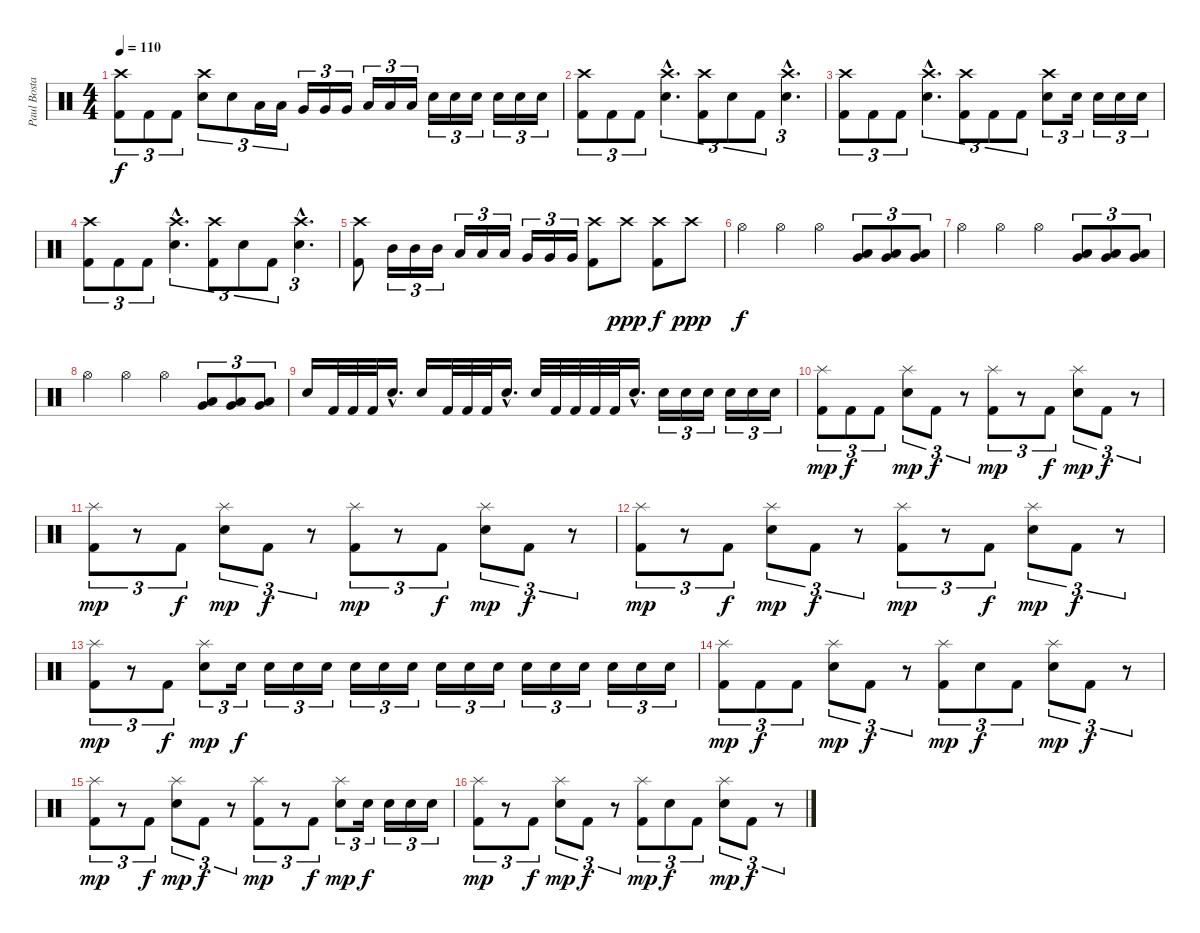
\track ("Paul Bostaph" "Paul Bosta") {instrument percussion}
\staff {score}
\articulation defaults
\ts (4 4)
\tempo 110
\clef neutral
\ks c
("Crash high (hit)" "Kick (hit) 2").8{tu (3 2) dy f} "Kick (hit) 2".8{tu (3 2)} "Kick (hit) 2".8{tu (3 2)} ("Crash high (hit)" "Electric Snare (hit)").8{tu (3 2)} "Electric Snare (hit)".8{tu (3 2)} "Low Tom (hit)".16{tu (3 2)} "Low Tom (hit)".16{tu (3 2)} "Very Low Tom (hit)".16{tu (3 2)} "Very Low Tom (hit)".16{tu (3 2)} "Very Low Tom (hit)".16{tu (3 2)} "Low Floor Tom (hit)".16{tu (3 2)} "Low Floor Tom (hit)".16{tu (3 2)} "Low Floor Tom (hit)".16{tu (3 2)} "Electric Snare (hit)".16{tu (3 2)} "Electric Snare (hit)".16{tu (3 2)} "Electric Snare (hit)".16{tu (3 2)} "Electric Snare (hit)".16{tu (3 2)} "Electric Snare (hit)".16{tu (3 2)} "Electric Snare (hit)".16{tu (3 2)} |
("Crash high (hit)" "Kick (hit) 2").8{tu (3 2)} "Kick (hit) 2".8{tu (3 2)} "Kick (hit) 2".8{tu (3 2)} ("Crash high (hit)"{hac} "Electric Snare (hit)"{hac}).4{d tu (3 2)} ("Crash high (hit)" "Kick (hit) 2").8{tu (3 2)} "Electric Snare (hit)".8{tu (3 2)} "Kick (hit) 2".8{tu (3 2)} ("Crash high (hit)"{hac} "Electric Snare (hit)"{hac}).4{d tu (3 2)} |
("Crash high (hit)" "Kick (hit) 2").8{tu (3 2)} "Kick (hit) 2".8{tu (3 2)} "Kick (hit) 2".8{tu (3 2)} ("Crash high (hit)"{hac} "Electric Snare (hit)"{hac}).4{d tu (3 2)} ("Crash high (hit)" "Kick (hit) 2").8{tu (3 2)} "Kick (hit) 2".8{tu (3 2)} "Kick (hit) 2".8{tu (3 2)} ("Crash high (hit)" "Electric Snare (hit)").8{tu (3 2)} "Electric Snare (hit)".16{tu (3 2)} "Electric Snare (hit)".16{tu (3 2)} "Electric Snare (hit)".16{tu (3 2)} "Electric Snare (hit)".16{tu (3 2)} |
("Crash high (hit)" "Kick (hit) 2").8{tu (3 2)} "Kick (hit) 2".8{tu (3 2)} "Kick (hit) 2".8{tu (3 2)} ("Crash high (hit)"{hac} "Electric Snare (hit)"{hac}).4{d tu (3 2)} ("Crash high (hit)" "Kick (hit) 2").8{tu (3 2)} "Electric Snare (hit)".8{tu (3 2)} "Kick (hit) 2".8{tu (3 2)} ("Crash high (hit)"{hac} "Electric Snare (hit)"{hac}).4{d tu (3 2)} |
("Crash high (hit)" "Kick (hit) 2").8 "Mid Tom (hit)".16{tu (3 2)} "Mid Tom (hit)".16{tu (3 2)} "Mid Tom (hit)".16{tu (3 2)} "Low Tom (hit)".16{tu (3 2)} "Low Tom (hit)".16{tu (3 2)} "Low Tom (hit)".16{tu (3 2)} "Very Low Tom (hit)".16{tu (3 2)} "Very Low Tom (hit)".16{tu (3 2)} "Very Low Tom (hit)".16{tu (3 2)} ("Crash high (hit)" "Kick (hit) 2").8 "Crash high (hit)".8{dy ppp} ("Crash high (hit)" "Kick (hit) 2").8{dy f} "Crash high (hit)".8{dy ppp} |
"Hi-Hat (open)".4{dy f} "Hi-Hat (open)".4 "Hi-Hat (open)".4 ("Low Floor Tom (hit)" "Very Low Tom (hit)").8{tu (3 2)} ("Low Floor Tom (hit)" "Very Low Tom (hit)").8{tu (3 2)} ("Low Floor Tom (hit)" "Very Low Tom (hit)").8{tu (3 2)} |
"Hi-Hat (open)".4 "Hi-Hat (open)".4 "Hi-Hat (open)".4 ("Low Floor Tom (hit)" "Very Low Tom (hit)").8{tu (3 2)} ("Low Floor Tom (hit)" "Very Low Tom (hit)").8{tu (3 2)} ("Low Floor Tom (hit)" "Very Low Tom (hit)").8{tu (3 2)} |
"Hi-Hat (open)".4 "Hi-Hat (open)".4 "Hi-Hat (open)".4 ("Low Floor Tom (hit)" "Very Low Tom (hit)").8{tu (3 2)} ("Low Floor Tom (hit)" "Very Low Tom (hit)").8{tu (3 2)} ("Low Floor Tom (hit)" "Very Low Tom (hit)").8{tu (3 2)} |
"Electric Snare (hit)".16 "Kick (hit) 2".32 "Kick (hit) 2".32 "Kick (hit) 2".32 "Electric Snare (hit)"{hac}.16{d} "Electric Snare (hit)".16 "Kick (hit) 2".32 "Kick (hit) 2".32 "Kick (hit) 2".32 "Electric Snare (hit)"{hac}.16{d} "Electric Snare (hit)".32 "Kick (hit) 2".32 "Kick (hit) 2".32 "Kick (hit) 2".32 "Kick (hit) 2".32 "Electric Snare (hit)"{hac}.16{d} "Electric Snare (hit)".16{tu (3 2)} "Electric Snare (hit)".16{tu (3 2)} "Electric Snare (hit)".16{tu (3 2)} "Electric Snare (hit)".16{tu (3 2)} "Electric Snare (hit)".16{tu (3 2)} "Electric Snare (hit)".16{tu (3 2)} |
("Splash (hit)" "Kick (hit) 2").8{tu (3 2) dy mp} "Kick (hit) 2".8{tu (3 2) dy f} "Kick (hit) 2".8{tu (3 2)} ("Splash (hit)" "Electric Snare (hit)").8{tu (3 2) dy mp} "Kick (hit) 2".8{tu (3 2) dy f} r.8{tu (3 2)} ("Splash (hit)" "Kick (hit) 2").8{tu (3 2) dy mp} r.8{tu (3 2)} "Kick (hit) 2".8{tu (3 2) dy f} ("Splash (hit)" "Electric Snare (hit)").8{tu (3 2) dy mp} "Kick (hit) 2".8{tu (3 2) dy f} r.8{tu (3 2)} |
("Splash (hit)" "Kick (hit) 2").8{tu (3 2) dy mp} r.8{tu (3 2)} "Kick (hit) 2".8{tu (3 2) dy f} ("Splash (hit)" "Electric Snare (hit)").8{tu (3 2) dy mp} "Kick (hit) 2".8{tu (3 2) dy f} r.8{tu (3 2)} ("Splash (hit)" "Kick (hit) 2").8{tu (3 2) dy mp} r.8{tu (3 2)} "Kick (hit) 2".8{tu (3 2) dy f} ("Splash (hit)" "Electric Snare (hit)").8{tu (3 2) dy mp} "Kick (hit) 2".8{tu (3 2) dy f} r.8{tu (3 2)} |
("Splash (hit)" "Kick (hit) 2").8{tu (3 2) dy mp} r.8{tu (3 2)} "Kick (hit) 2".8{tu (3 2) dy f} ("Splash (hit)" "Electric Snare (hit)").8{tu (3 2) dy mp} "Kick (hit) 2".8{tu (3 2) dy f} r.8{tu (3 2)} ("Splash (hit)" "Kick (hit) 2").8{tu (3 2) dy mp} r.8{tu (3 2)} "Kick (hit) 2".8{tu (3 2) dy f} ("Splash (hit)" "Electric Snare (hit)").8{tu (3 2) dy mp} "Kick (hit) 2".8{tu (3 2) dy f} r.8{tu (3 2)} |
("Splash (hit)" "Kick (hit) 2").8{tu (3 2) dy mp} r.8{tu (3 2)} "Kick (hit) 2".8{tu (3 2) dy f} ("Splash (hit)" "Electric Snare (hit)").8{tu (3 2) dy mp} "Electric Snare (hit)".16{tu (3 2) dy f} "Electric Snare (hit)".16{tu (3 2)} "Electric Snare (hit)".16{tu (3 2)} "Electric Snare (hit)".16{tu (3 2)} "Electric Snare (hit)".16{tu (3 2)} "Electric Snare (hit)".16{tu (3 2)} "Electric Snare (hit)".16{tu (3 2)} "Electric Snare (hit)".16{tu (3 2)} "Electric Snare (hit)".16{tu (3 2)} "Electric Snare (hit)".16{tu (3 2)} "Electric Snare (hit)".16{tu (3 2)} "Electric Snare (hit)".16{tu (3 2)} "Electric Snare (hit)".16{tu (3 2)} "Electric Snare (hit)".16{tu (3 2)} "Electric Snare (hit)".16{tu (3 2)} "Electric Snare (hit)".16{tu (3 2)} |
("Splash (hit)" "Kick (hit) 2").8{tu (3 2) dy mp} "Kick (hit) 2".8{tu (3 2) dy f} "Kick (hit) 2".8{tu (3 2)} ("Splash (hit)" "Electric Snare (hit)").8{tu (3 2) dy mp} "Kick (hit) 2".8{tu (3 2) dy f} r.8{tu (3 2)} ("Splash (hit)" "Kick (hit) 2").8{tu (3 2) dy mp} "Electric Snare (hit)".8{tu (3 2) dy f} "Kick (hit) 2".8{tu (3 2)} ("Splash (hit)" "Electric Snare (hit)").8{tu (3 2) dy mp} "Kick (hit) 2".8{tu (3 2) dy f} r.8{tu (3 2)} |
("Splash (hit)" "Kick (hit) 2").8{tu (3 2) dy mp} r.8{tu (3 2)} "Kick (hit) 2".8{tu (3 2) dy f} ("Splash (hit)" "Electric Snare (hit)").8{tu (3 2) dy mp} "Kick (hit) 2".8{tu (3 2) dy f} r.8{tu (3 2)} ("Splash (hit)" "Kick (hit) 2").8{tu (3 2) dy mp} r.8{tu (3 2)} "Kick (hit) 2".8{tu (3 2) dy f} ("Splash (hit)" "Electric Snare (hit)").8{tu (3 2) dy mp} "Electric Snare (hit)".16{tu (3 2) dy f} "Electric Snare (hit)".16{tu (3 2)} "Electric Snare (hit)".16{tu (3 2)} "Electric Snare (hit)".16{tu (3 2)} |
("Splash (hit)" "Kick (hit) 2").8{tu (3 2) dy mp} r.8{tu (3 2)} "Kick (hit) 2".8{tu (3 2) dy f} ("Splash (hit)" "Electric Snare (hit)").8{tu (3 2) dy mp} "Kick (hit) 2".8{tu (3 2) dy f} r.8{tu (3 2)} ("Splash (hit)" "Kick (hit) 2").8{tu (3 2) dy mp} "Electric Snare (hit)".8{tu (3 2) dy f} "Kick (hit) 2".8{tu (3 2)} ("Splash (hit)" "Electric Snare (hit)").8{tu (3 2) dy mp} "Kick (hit) 2".8{tu (3 2) dy f} r.8{tu (3 2)}
